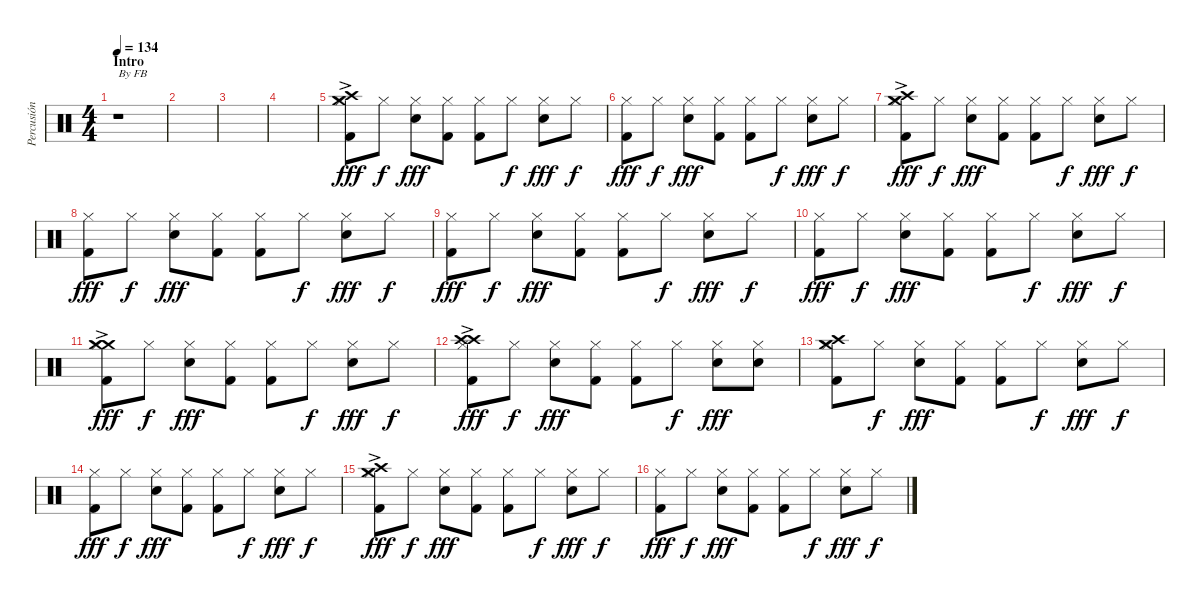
\track ("Percusión" "Percusión") {instrument percussion}
\staff {score}
\articulation defaults
\ts (4 4)
\section ("" "Intro")
\tempo 134
\clef neutral
\ks c
r.1{txt "By FB" dy fff} |
|
|
|
("Crash high (hit)" "Crash medium (hit)"{ac} "Hi-Hat (closed)" "Kick (hit) 2").8 "Hi-Hat (closed)".8{dy f} ("Hi-Hat (closed)" "Electric Snare (hit)").8{dy fff} ("Hi-Hat (closed)" "Kick (hit) 2").8 ("Hi-Hat (closed)" "Kick (hit) 2").8 "Hi-Hat (closed)".8{dy f} ("Hi-Hat (closed)" "Electric Snare (hit)").8{dy fff} "Hi-Hat (closed)".8{dy f} |
("Hi-Hat (closed)" "Kick (hit) 2").8{dy fff} "Hi-Hat (closed)".8{dy f} ("Hi-Hat (closed)" "Electric Snare (hit)").8{dy fff} ("Hi-Hat (closed)" "Kick (hit) 2").8 ("Hi-Hat (closed)" "Kick (hit) 2").8 "Hi-Hat (closed)".8{dy f} ("Hi-Hat (closed)" "Electric Snare (hit)").8{dy fff} "Hi-Hat (closed)".8{dy f} |
("Crash medium (hit)"{ac} "Crash high (hit)"{ac} "Hi-Hat (closed)" "Kick (hit) 2").8{dy fff} "Hi-Hat (closed)".8{dy f} ("Hi-Hat (closed)" "Electric Snare (hit)").8{dy fff} ("Hi-Hat (closed)" "Kick (hit) 2").8 ("Hi-Hat (closed)" "Kick (hit) 2").8 "Hi-Hat (closed)".8{dy f} ("Hi-Hat (closed)" "Electric Snare (hit)").8{dy fff} "Hi-Hat (closed)".8{dy f} |
("Hi-Hat (closed)" "Kick (hit) 2").8{dy fff} "Hi-Hat (closed)".8{dy f} ("Hi-Hat (closed)" "Electric Snare (hit)").8{dy fff} ("Hi-Hat (closed)" "Kick (hit) 2").8 ("Hi-Hat (closed)" "Kick (hit) 2").8 "Hi-Hat (closed)".8{dy f} ("Hi-Hat (closed)" "Electric Snare (hit)").8{dy fff} "Hi-Hat (closed)".8{dy f} |
("Hi-Hat (closed)" "Kick (hit) 2").8{dy fff} "Hi-Hat (closed)".8{dy f} ("Hi-Hat (closed)" "Electric Snare (hit)").8{dy fff} ("Hi-Hat (closed)" "Kick (hit) 2").8 ("Hi-Hat (closed)" "Kick (hit) 2").8 "Hi-Hat (closed)".8{dy f} ("Hi-Hat (closed)" "Electric Snare (hit)").8{dy fff} "Hi-Hat (closed)".8{dy f} |
("Hi-Hat (closed)" "Kick (hit) 2").8{dy fff} "Hi-Hat (closed)".8{dy f} ("Hi-Hat (closed)" "Electric Snare (hit)").8{dy fff} ("Hi-Hat (closed)" "Kick (hit) 2").8 ("Hi-Hat (closed)" "Kick (hit) 2").8 "Hi-Hat (closed)".8{dy f} ("Hi-Hat (closed)" "Electric Snare (hit)").8{dy fff} "Hi-Hat (closed)".8{dy f} |
("Crash medium (hit)"{ac} "Crash medium (hit)"{ac} "Hi-Hat (closed)" "Kick (hit) 2").8{dy fff} "Hi-Hat (closed)".8{dy f} ("Hi-Hat (closed)" "Electric Snare (hit)").8{dy fff} ("Hi-Hat (closed)" "Kick (hit) 2").8 ("Hi-Hat (closed)" "Kick (hit) 2").8 "Hi-Hat (closed)".8{dy f} ("Hi-Hat (closed)" "Electric Snare (hit)").8{dy fff} "Hi-Hat (closed)".8{dy f} |
("Crash high (hit)"{ac} "Crash high (hit)"{ac} "Hi-Hat (closed)" "Kick (hit) 2").8{dy fff} "Hi-Hat (closed)".8{dy f} ("Hi-Hat (closed)" "Electric Snare (hit)").8{dy fff} ("Hi-Hat (closed)" "Kick (hit) 2").8 ("Hi-Hat (closed)" "Kick (hit) 2").8 "Hi-Hat (closed)".8{dy f} ("Hi-Hat (closed)" "Electric Snare (hit)").8{dy fff} ("Hi-Hat (closed)" "Electric Snare (hit)").8 |
("Crash medium (hit)" "Crash high (hit)" "Hi-Hat (closed)" "Kick (hit) 2").8 "Hi-Hat (closed)".8{dy f} ("Hi-Hat (closed)" "Electric Snare (hit)").8{dy fff} ("Hi-Hat (closed)" "Kick (hit) 2").8 ("Hi-Hat (closed)" "Kick (hit) 2").8 "Hi-Hat (closed)".8{dy f} ("Hi-Hat (closed)" "Electric Snare (hit)").8{dy fff} "Hi-Hat (closed)".8{dy f} |
("Hi-Hat (closed)" "Kick (hit) 2").8{dy fff} "Hi-Hat (closed)".8{dy f} ("Hi-Hat (closed)" "Electric Snare (hit)").8{dy fff} ("Hi-Hat (closed)" "Kick (hit) 2").8 ("Hi-Hat (closed)" "Kick (hit) 2").8 "Hi-Hat (closed)".8{dy f} ("Hi-Hat (closed)" "Electric Snare (hit)").8{dy fff} "Hi-Hat (closed)".8{dy f} |
("Crash medium (hit)" "Crash high (hit)"{ac} "Hi-Hat (closed)" "Kick (hit) 2").8{dy fff} "Hi-Hat (closed)".8{dy f} ("Hi-Hat (closed)" "Electric Snare (hit)").8{dy fff} ("Hi-Hat (closed)" "Kick (hit) 2").8 ("Hi-Hat (closed)" "Kick (hit) 2").8 "Hi-Hat (closed)".8{dy f} ("Hi-Hat (closed)" "Electric Snare (hit)").8{dy fff} "Hi-Hat (closed)".8{dy f} |
("Hi-Hat (closed)" "Kick (hit) 2").8{dy fff} "Hi-Hat (closed)".8{dy f} ("Hi-Hat (closed)" "Electric Snare (hit)").8{dy fff} ("Hi-Hat (closed)" "Kick (hit) 2").8 ("Hi-Hat (closed)" "Kick (hit) 2").8 "Hi-Hat (closed)".8{dy f} ("Hi-Hat (closed)" "Electric Snare (hit)").8{dy fff} "Hi-Hat (closed)".8{dy f}
